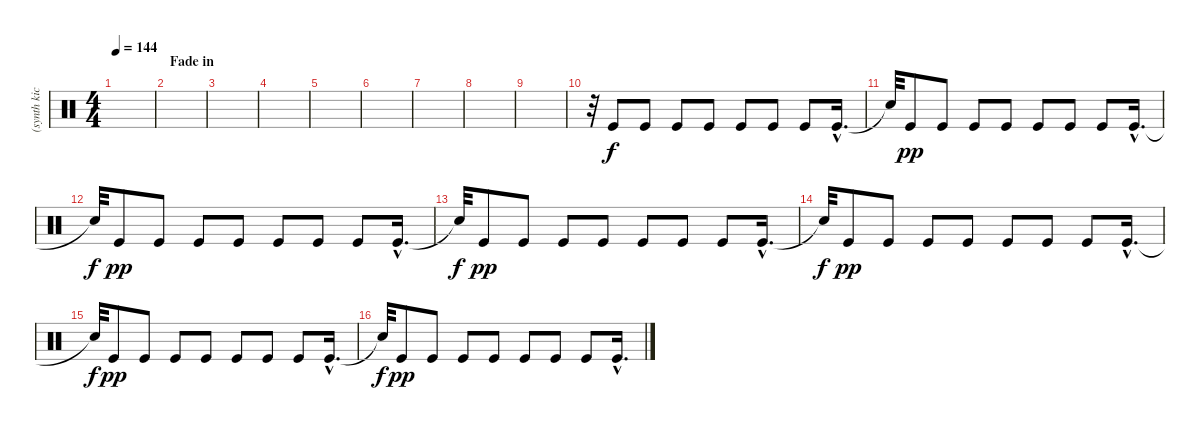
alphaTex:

\track ("(synth kick loop reverb)" "(synth kic") {instrument percussion}
\staff {score}
\articulation defaults
\ts (4 4)
\tempo 144
\clef neutral
\ks c
|
\section ("" "Fade in")
|
|
|
|
|
|
|
|
r.32 "Kick (hit)".8 "Kick (hit)".8 "Kick (hit)".8 "Kick (hit)".8 "Kick (hit)".8 "Kick (hit)".8 "Kick (hit)".8 "Kick (hit)"{hac}.16{d} |
"Snare (hit)"{t}.32{dy f} "Kick (hit)".8{dy pp} "Kick (hit)".8 "Kick (hit)".8 "Kick (hit)".8 "Kick (hit)".8 "Kick (hit)".8 "Kick (hit)".8 "Kick (hit)"{hac}.16{d} |
"Snare (hit)"{t}.32{dy f} "Kick (hit)".8{dy pp} "Kick (hit)".8 "Kick (hit)".8 "Kick (hit)".8 "Kick (hit)".8 "Kick (hit)".8 "Kick (hit)".8 "Kick (hit)"{hac}.16{d} |
"Snare (hit)"{t}.32{dy f} "Kick (hit)".8{dy pp} "Kick (hit)".8 "Kick (hit)".8 "Kick (hit)".8 "Kick (hit)".8 "Kick (hit)".8 "Kick (hit)".8 "Kick (hit)"{hac}.16{d} |
"Snare (hit)"{t}.32{dy f} "Kick (hit)".8{dy pp} "Kick (hit)".8 "Kick (hit)".8 "Kick (hit)".8 "Kick (hit)".8 "Kick (hit)".8 "Kick (hit)".8 "Kick (hit)"{hac}.16{d} |
"Snare (hit)"{t}.32{dy f} "Kick (hit)".8{dy pp} "Kick (hit)".8 "Kick (hit)".8 "Kick (hit)".8 "Kick (hit)".8 "Kick (hit)".8 "Kick (hit)".8 "Kick (hit)"{hac}.16{d} |
"Snare (hit)"{t}.32{dy f} "Kick (hit)".8{dy pp} "Kick (hit)".8 "Kick (hit)".8 "Kick (hit)".8 "Kick (hit)".8 "Kick (hit)".8 "Kick (hit)".8 "Kick (hit)"{hac}.16{d}
